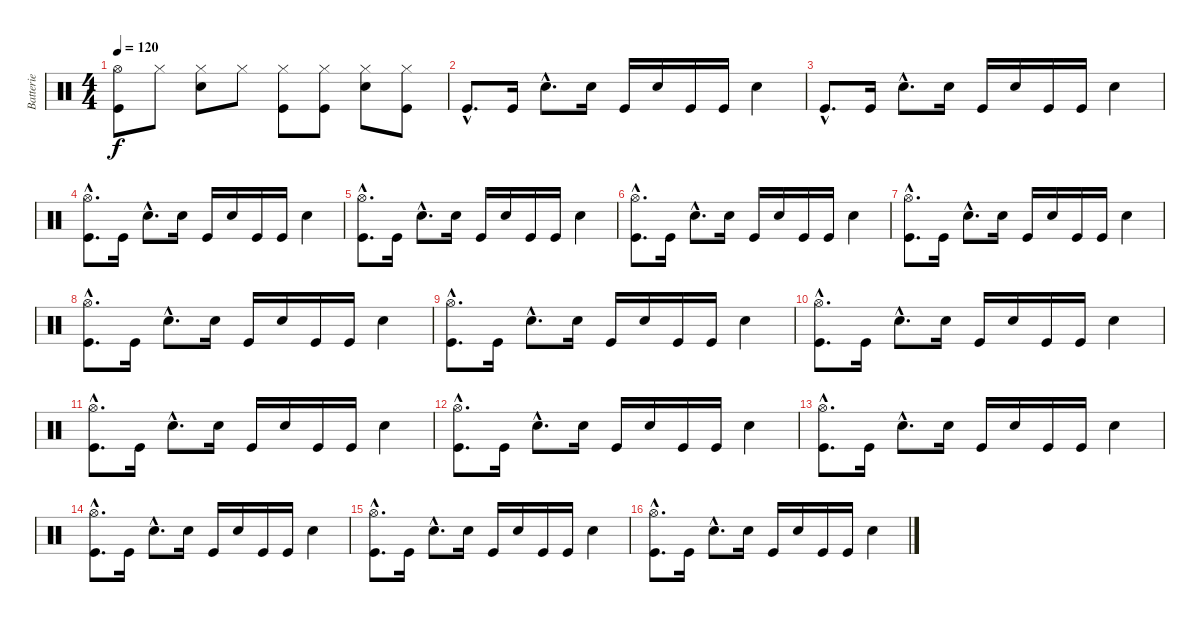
\track ("Batterie" "Batterie") {instrument percussion}
\staff {score}
\articulation defaults
\ts (4 4)
\tempo 120
\clef neutral
\ks c
("Hi-Hat (open)" "Kick (hit)").8{dy f} "Hi-Hat (closed)".8 ("Hi-Hat (closed)" "Snare (hit) 2").8 "Hi-Hat (closed)".8 ("Hi-Hat (closed)" "Kick (hit)").8 ("Hi-Hat (closed)" "Kick (hit)").8 ("Hi-Hat (closed)" "Snare (hit) 2").8 ("Hi-Hat (closed)" "Kick (hit)").8 |
"Kick (hit)"{hac}.8{d} "Kick (hit)".16 "Snare (hit) 2"{hac}.8{d} "Snare (hit) 2".16 "Kick (hit)".16 "Snare (hit) 2".16 "Kick (hit)".16 "Kick (hit)".16 "Snare (hit) 2".4 |
"Kick (hit)"{hac}.8{d} "Kick (hit)".16 "Snare (hit) 2"{hac}.8{d} "Snare (hit) 2".16 "Kick (hit)".16 "Snare (hit) 2".16 "Kick (hit)".16 "Kick (hit)".16 "Snare (hit) 2".4 |
("Hi-Hat (open)"{hac} "Kick (hit)"{hac}).8{d} "Kick (hit)".16 "Snare (hit) 2"{hac}.8{d} "Snare (hit) 2".16 "Kick (hit)".16 "Snare (hit) 2".16 "Kick (hit)".16 "Kick (hit)".16 "Snare (hit) 2".4 |
("Hi-Hat (open)"{hac} "Kick (hit)"{hac}).8{d} "Kick (hit)".16 "Snare (hit) 2"{hac}.8{d} "Snare (hit) 2".16 "Kick (hit)".16 "Snare (hit) 2".16 "Kick (hit)".16 "Kick (hit)".16 "Snare (hit) 2".4 |
("Hi-Hat (open)"{hac} "Kick (hit)"{hac}).8{d} "Kick (hit)".16 "Snare (hit) 2"{hac}.8{d} "Snare (hit) 2".16 "Kick (hit)".16 "Snare (hit) 2".16 "Kick (hit)".16 "Kick (hit)".16 "Snare (hit) 2".4 |
("Hi-Hat (open)"{hac} "Kick (hit)"{hac}).8{d} "Kick (hit)".16 "Snare (hit) 2"{hac}.8{d} "Snare (hit) 2".16 "Kick (hit)".16 "Snare (hit) 2".16 "Kick (hit)".16 "Kick (hit)".16 "Snare (hit) 2".4 |
("Hi-Hat (open)"{hac} "Kick (hit)"{hac}).8{d} "Kick (hit)".16 "Snare (hit) 2"{hac}.8{d} "Snare (hit) 2".16 "Kick (hit)".16 "Snare (hit) 2".16 "Kick (hit)".16 "Kick (hit)".16 "Snare (hit) 2".4 |
("Hi-Hat (open)"{hac} "Kick (hit)"{hac}).8{d} "Kick (hit)".16 "Snare (hit) 2"{hac}.8{d} "Snare (hit) 2".16 "Kick (hit)".16 "Snare (hit) 2".16 "Kick (hit)".16 "Kick (hit)".16 "Snare (hit) 2".4 |
("Hi-Hat (open)"{hac} "Kick (hit)"{hac}).8{d} "Kick (hit)".16 "Snare (hit) 2"{hac}.8{d} "Snare (hit) 2".16 "Kick (hit)".16 "Snare (hit) 2".16 "Kick (hit)".16 "Kick (hit)".16 "Snare (hit) 2".4 |
("Hi-Hat (open)"{hac} "Kick (hit)"{hac}).8{d} "Kick (hit)".16 "Snare (hit) 2"{hac}.8{d} "Snare (hit) 2".16 "Kick (hit)".16 "Snare (hit) 2".16 "Kick (hit)".16 "Kick (hit)".16 "Snare (hit) 2".4 |
("Hi-Hat (open)"{hac} "Kick (hit)"{hac}).8{d} "Kick (hit)".16 "Snare (hit) 2"{hac}.8{d} "Snare (hit) 2".16 "Kick (hit)".16 "Snare (hit) 2".16 "Kick (hit)".16 "Kick (hit)".16 "Snare (hit) 2".4 |
("Hi-Hat (open)"{hac} "Kick (hit)"{hac}).8{d} "Kick (hit)".16 "Snare (hit) 2"{hac}.8{d} "Snare (hit) 2".16 "Kick (hit)".16 "Snare (hit) 2".16 "Kick (hit)".16 "Kick (hit)".16 "Snare (hit) 2".4 |
("Hi-Hat (open)"{hac} "Kick (hit)"{hac}).8{d} "Kick (hit)".16 "Snare (hit) 2"{hac}.8{d} "Snare (hit) 2".16 "Kick (hit)".16 "Snare (hit) 2".16 "Kick (hit)".16 "Kick (hit)".16 "Snare (hit) 2".4 |
("Hi-Hat (open)"{hac} "Kick (hit)"{hac}).8{d} "Kick (hit)".16 "Snare (hit) 2"{hac}.8{d} "Snare (hit) 2".16 "Kick (hit)".16 "Snare (hit) 2".16 "Kick (hit)".16 "Kick (hit)".16 "Snare (hit) 2".4 |
("Hi-Hat (open)"{hac} "Kick (hit)"{hac}).8{d} "Kick (hit)".16 "Snare (hit) 2"{hac}.8{d} "Snare (hit) 2".16 "Kick (hit)".16 "Snare (hit) 2".16 "Kick (hit)".16 "Kick (hit)".16 "Snare (hit) 2".4
